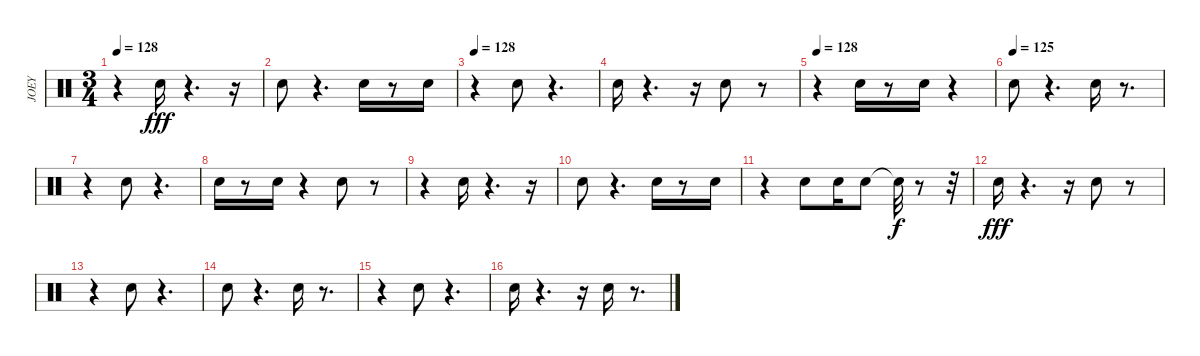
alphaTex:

\track ("JOEY" "JOEY") {instrument percussion}
\staff {score}
\articulation defaults
\ts (3 4)
\tempo 128
\clef neutral
\ks c
r.4{dy fff} "Snare (hit) 2".16 r.4{d} r.16 |
"Snare (hit) 2".8 r.4{d} "Snare (hit) 2".16 r.8 "Snare (hit) 2".16 |
\tempo 128
r.4 "Snare (hit) 2".8 r.4{d} |
"Snare (hit) 2".16 r.4{d} r.16 "Snare (hit) 2".8 r.8 |
\tempo 128
r.4 "Snare (hit) 2".16 r.8 "Snare (hit) 2".16 r.4 |
\tempo (125)
"Snare (hit) 2".8 r.4{d} "Snare (hit) 2".16 r.8{d} |
r.4 "Snare (hit) 2".8 r.4{d} |
"Snare (hit) 2".16 r.8 "Snare (hit) 2".16 r.4 "Snare (hit) 2".8 r.8 |
r.4 "Snare (hit) 2".16 r.4{d} r.16 |
"Snare (hit) 2".8 r.4{d} "Snare (hit) 2".16 r.8 "Snare (hit) 2".16 |
r.4 "Snare (hit) 2".8 "Snare (hit) 2".16 "Snare (hit) 2".8 "Snare (hit)"{t}.32{dy f} r.8 r.32 |
"Snare (hit) 2".16{dy fff} r.4{d} r.16 "Snare (hit) 2".8 r.8 |
r.4 "Snare (hit) 2".8 r.4{d} |
"Snare (hit) 2".8 r.4{d} "Snare (hit) 2".16 r.8{d} |
r.4 "Snare (hit) 2".8 r.4{d} |
"Snare (hit) 2".16 r.4{d} r.16 "Snare (hit) 2".16 r.8{d}
